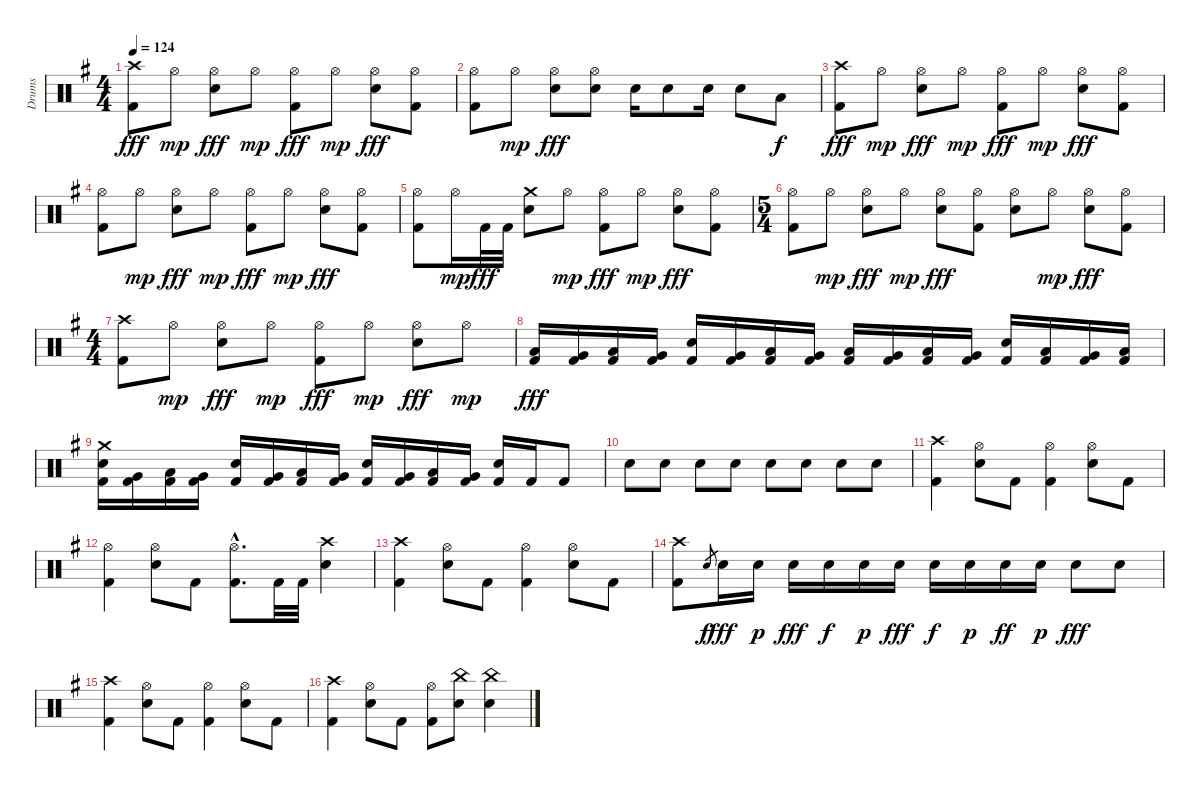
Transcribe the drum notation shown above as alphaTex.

\track ("Drums" "Drums") {instrument percussion}
\staff {score}
\articulation defaults
\ts (4 4)
\tempo 124
\clef neutral
\ks g
("Crash high (hit)" "Kick (hit) 2").8{dy fff} "Hi-Hat (open)".8{dy mp} ("Hi-Hat (open)" "Electric Snare (hit)").8{dy fff} "Hi-Hat (open)".8{dy mp} ("Hi-Hat (open)" "Kick (hit) 2").8{dy fff} "Hi-Hat (open)".8{dy mp} ("Hi-Hat (open)" "Electric Snare (hit)").8{dy fff} ("Hi-Hat (open)" "Kick (hit) 2").8 |
("Hi-Hat (open)" "Kick (hit) 2").8 "Hi-Hat (open)".8{dy mp} ("Hi-Hat (open)" "Electric Snare (hit)").8{dy fff} ("Hi-Hat (open)" "Electric Snare (hit)").8 "Electric Snare (hit)".16 "Electric Snare (hit)".8 "Electric Snare (hit)".16 "Electric Snare (hit)".8 "Low Tom (hit)".8{dy f} |
("Crash high (hit)" "Kick (hit) 2").8{dy fff} "Hi-Hat (open)".8{dy mp} ("Hi-Hat (open)" "Electric Snare (hit)").8{dy fff} "Hi-Hat (open)".8{dy mp} ("Hi-Hat (open)" "Kick (hit) 2").8{dy fff} "Hi-Hat (open)".8{dy mp} ("Hi-Hat (open)" "Electric Snare (hit)").8{dy fff} ("Hi-Hat (open)" "Kick (hit) 2").8 |
("Hi-Hat (open)" "Kick (hit) 2").8 "Hi-Hat (open)".8{dy mp} ("Hi-Hat (open)" "Electric Snare (hit)").8{dy fff} "Hi-Hat (open)".8{dy mp} ("Hi-Hat (open)" "Kick (hit) 2").8{dy fff} "Hi-Hat (open)".8{dy mp} ("Hi-Hat (open)" "Electric Snare (hit)").8{dy fff} ("Hi-Hat (open)" "Kick (hit) 2").8 |
("Hi-Hat (open)" "Kick (hit) 2").8 "Hi-Hat (open)".16{dy mp} "Kick (hit) 2".32{dy fff} "Kick (hit) 2".32 ("Crash medium (hit)" "Electric Snare (hit)").8 "Hi-Hat (open)".8{dy mp} ("Hi-Hat (open)" "Kick (hit) 2").8{dy fff} "Hi-Hat (open)".8{dy mp} ("Hi-Hat (open)" "Electric Snare (hit)").8{dy fff} ("Hi-Hat (open)" "Kick (hit) 2").8 |
\ts (5 4)
("Hi-Hat (open)" "Kick (hit) 2").8 "Hi-Hat (open)".8{dy mp} ("Hi-Hat (open)" "Electric Snare (hit)").8{dy fff} "Hi-Hat (open)".8{dy mp} ("Hi-Hat (open)" "Electric Snare (hit)").8{dy fff} ("Hi-Hat (open)" "Kick (hit) 2").8 ("Hi-Hat (open)" "Electric Snare (hit)").8 "Hi-Hat (open)".8{dy mp} ("Hi-Hat (open)" "Electric Snare (hit)").8{dy fff} ("Hi-Hat (open)" "Kick (hit) 2").8 |
\ts (4 4)
("Crash high (hit)" "Kick (hit) 2").8 "Hi-Hat (open)".8{dy mp} ("Hi-Hat (open)" "Electric Snare (hit)").8{dy fff} "Hi-Hat (open)".8{dy mp} ("Hi-Hat (open)" "Kick (hit) 2").8{dy fff} "Hi-Hat (open)".8{dy mp} ("Hi-Hat (open)" "Electric Snare (hit)").8{dy fff} "Hi-Hat (open)".8{dy mp} |
("Low Tom (hit)" "Kick (hit) 2").16{dy fff} ("Very Low Tom (hit)" "Kick (hit) 2").16 ("Low Tom (hit)" "Kick (hit) 2").16 ("Very Low Tom (hit)" "Kick (hit) 2").16 ("Electric Snare (hit)" "Kick (hit) 2").16 ("Very Low Tom (hit)" "Kick (hit) 2").16 ("Low Tom (hit)" "Kick (hit) 2").16 ("Very Low Tom (hit)" "Kick (hit) 2").16 ("Low Tom (hit)" "Kick (hit) 2").16 ("Very Low Tom (hit)" "Kick (hit) 2").16 ("Low Tom (hit)" "Kick (hit) 2").16 ("Very Low Tom (hit)" "Kick (hit) 2").16 ("Electric Snare (hit)" "Kick (hit) 2").16 ("Low Tom (hit)" "Kick (hit) 2").16 ("Very Low Tom (hit)" "Kick (hit) 2").16 ("Low Tom (hit)" "Kick (hit) 2").16 |
("Crash medium (hit)" "Electric Snare (hit)" "Kick (hit) 2").16 ("Very Low Tom (hit)" "Kick (hit) 2").16 ("Low Tom (hit)" "Kick (hit) 2").16 ("Very Low Tom (hit)" "Kick (hit) 2").16 ("Electric Snare (hit)" "Kick (hit) 2").16 ("Very Low Tom (hit)" "Kick (hit) 2").16 ("Low Tom (hit)" "Kick (hit) 2").16 ("Very Low Tom (hit)" "Kick (hit) 2").16 ("Electric Snare (hit)" "Kick (hit) 2").16 ("Very Low Tom (hit)" "Kick (hit) 2").16 ("Low Tom (hit)" "Kick (hit) 2").16 ("Very Low Tom (hit)" "Kick (hit) 2").16 ("Electric Snare (hit)" "Kick (hit) 2").16 "Kick (hit) 2".16 "Kick (hit) 2".8 |
"Electric Snare (hit)".8 "Electric Snare (hit)".8 "Electric Snare (hit)".8 "Electric Snare (hit)".8 "Electric Snare (hit)".8 "Electric Snare (hit)".8 "Electric Snare (hit)".8 "Electric Snare (hit)".8 |
("Crash high (hit)" "Kick (hit) 2").4 ("Hi-Hat (open)" "Electric Snare (hit)").8 "Kick (hit) 2".8 ("Hi-Hat (open)" "Kick (hit) 2").4 ("Hi-Hat (open)" "Electric Snare (hit)").8 "Kick (hit) 2".8 |
("Hi-Hat (open)" "Kick (hit) 2").4 ("Hi-Hat (open)" "Electric Snare (hit)").8 "Kick (hit) 2".8 ("Hi-Hat (open)"{hac} "Kick (hit) 2"{hac}).8{d} "Kick (hit) 2".32 "Kick (hit) 2".32 ("Crash high (hit)" "Electric Snare (hit)").4 |
("Crash high (hit)" "Kick (hit) 2").4 ("Hi-Hat (open)" "Electric Snare (hit)").8 "Kick (hit) 2".8 ("Hi-Hat (open)" "Kick (hit) 2").4 ("Hi-Hat (open)" "Electric Snare (hit)").8 "Kick (hit) 2".8 |
("Crash high (hit)" "Kick (hit) 2").8 "Electric Snare (hit)".8{gr dy f} "Electric Snare (hit)".16{dy fff} "Electric Snare (hit)".16{dy p} "Electric Snare (hit)".16{dy fff} "Electric Snare (hit)".16{dy f} "Electric Snare (hit)".16{dy p} "Electric Snare (hit)".16{dy fff} "Electric Snare (hit)".16{dy f} "Electric Snare (hit)".16{dy p} "Electric Snare (hit)".16{dy ff} "Electric Snare (hit)".16{dy p} "Electric Snare (hit)".8{dy fff} "Electric Snare (hit)".8 |
("Crash high (hit)" "Kick (hit) 2").4 ("Hi-Hat (open)" "Electric Snare (hit)").8 "Kick (hit) 2".8 ("Hi-Hat (open)" "Kick (hit) 2").4 ("Hi-Hat (open)" "Electric Snare (hit)").8 "Kick (hit) 2".8 |
("Crash high (hit)" "Kick (hit) 2").4 ("Hi-Hat (open)" "Electric Snare (hit)").8 "Kick (hit) 2".8 ("Hi-Hat (open)" "Kick (hit) 2").8 ("China (hit)" "Electric Snare (hit)").8 ("China (hit)" "Electric Snare (hit)").4
